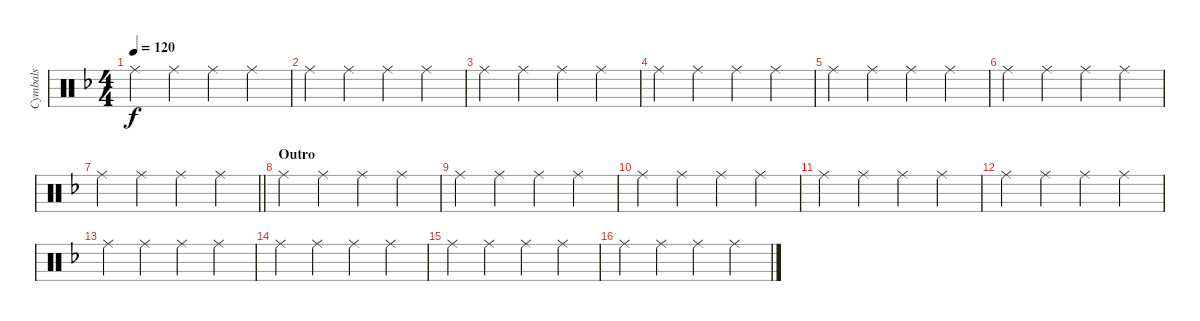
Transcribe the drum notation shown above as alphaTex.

\track ("Cymbals" "Cymbals") {instrument percussion}
\staff {score}
\articulation defaults
\ts (4 4)
\tempo 120
\clef neutral
\ks f "Ride (middle)".4{dy f} "Ride (middle)".4 "Ride (middle)".4 "Ride (middle)".4
|
"Ride (middle)".4 "Ride (middle)".4 "Ride (middle)".4 "Ride (middle)".4 |
"Ride (middle)".4{volume 15} "Ride (middle)".4 "Ride (middle)".4 "Ride (middle)".4 |
"Ride (middle)".4{volume 14} "Ride (middle)".4 "Ride (middle)".4 "Ride (middle)".4 |
"Ride (middle)".4{volume 13} "Ride (middle)".4 "Ride (middle)".4 "Ride (middle)".4 |
"Ride (middle)".4{volume 12} "Ride (middle)".4 "Ride (middle)".4 "Ride (middle)".4 |
\barLineRight lightlight "Ride (middle)".4{volume 11} "Ride (middle)".4 "Ride (middle)".4 "Ride (middle)".4
|
\section ("" "Outro")
"Ride (middle)".4{volume 10} "Ride (middle)".4 "Ride (middle)".4 "Ride (middle)".4 |
"Ride (middle)".4{volume 9} "Ride (middle)".4 "Ride (middle)".4 "Ride (middle)".4 |
"Ride (middle)".4{volume 8} "Ride (middle)".4 "Ride (middle)".4 "Ride (middle)".4 |
"Ride (middle)".4{volume 7} "Ride (middle)".4 "Ride (middle)".4 "Ride (middle)".4 |
"Ride (middle)".4{volume 6} "Ride (middle)".4 "Ride (middle)".4 "Ride (middle)".4 |
"Ride (middle)".4{volume 5} "Ride (middle)".4 "Ride (middle)".4 "Ride (middle)".4 |
"Ride (middle)".4{volume 4} "Ride (middle)".4 "Ride (middle)".4 "Ride (middle)".4 |
"Ride (middle)".4{volume 3} "Ride (middle)".4 "Ride (middle)".4 "Ride (middle)".4 |
"Ride (middle)".4{volume 2} "Ride (middle)".4 "Ride (middle)".4 "Ride (middle)".4
